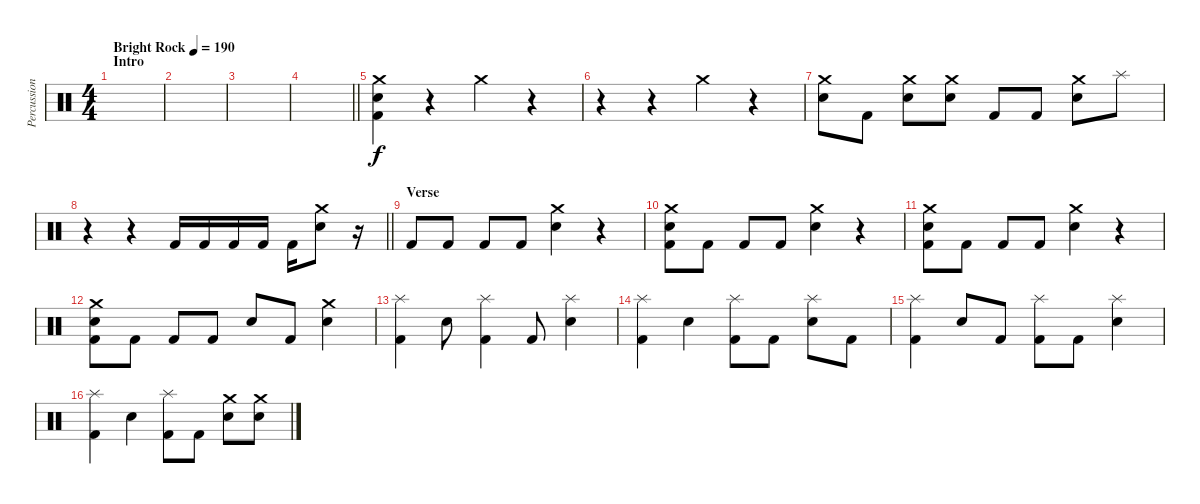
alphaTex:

\track ("Percussion" "Percussion") {instrument percussion}
\staff {score}
\articulation defaults
\ts (4 4)
\section ("" "Intro")
\tempo (190 "Bright Rock")
\clef neutral
\ks c
|
|
|
\barLineRight lightlight
|
("Crash medium (hit)" "Electric Snare (hit)" "Kick (hit) 2").4 r.4 "Crash medium (hit)".4 r.4 |
r.4 r.4 "Crash medium (hit)".4 r.4 |
("Crash medium (hit)" "Electric Snare (hit)").8 "Kick (hit) 2".8 ("Crash medium (hit)" "Electric Snare (hit)").8 ("Crash medium (hit)" "Electric Snare (hit)").8 "Kick (hit) 2".8 "Kick (hit) 2".8 ("Crash medium (hit)" "Electric Snare (hit)").8 "Splash (hit)".8 |
\barLineRight lightlight
r.4 r.4 "Kick (hit) 2".16 "Kick (hit) 2".16 "Kick (hit) 2".16 "Kick (hit) 2".16 "Kick (hit) 2".16 ("Crash medium (hit)" "Electric Snare (hit)").8 r.16 |
\section ("" "Verse")
"Kick (hit) 2".8 "Kick (hit) 2".8 "Kick (hit) 2".8 "Kick (hit) 2".8 ("Crash medium (hit)" "Electric Snare (hit)").4 r.4 |
("Crash medium (hit)" "Electric Snare (hit)" "Kick (hit) 2").8 "Kick (hit) 2".8 "Kick (hit) 2".8 "Kick (hit) 2".8 ("Crash medium (hit)" "Electric Snare (hit)").4 r.4 |
("Crash medium (hit)" "Electric Snare (hit)" "Kick (hit) 2").8 "Kick (hit) 2".8 "Kick (hit) 2".8 "Kick (hit) 2".8 ("Crash medium (hit)" "Electric Snare (hit)").4 r.4 |
("Crash medium (hit)" "Electric Snare (hit)" "Kick (hit) 2").8 "Kick (hit) 2".8 "Kick (hit) 2".8 "Kick (hit) 2".8 "Electric Snare (hit)".8 "Kick (hit) 2".8 ("Crash medium (hit)" "Electric Snare (hit)").4 |
("Splash (hit)" "Kick (hit) 2").4 "Electric Snare (hit)".8 ("Splash (hit)" "Kick (hit) 2").4 "Kick (hit) 2".8 ("Splash (hit)" "Electric Snare (hit)").4 |
("Splash (hit)" "Kick (hit) 2").4 "Electric Snare (hit)".4 ("Splash (hit)" "Kick (hit) 2").8 "Kick (hit) 2".8 ("Splash (hit)" "Electric Snare (hit)").8 "Kick (hit) 2".8 |
("Splash (hit)" "Kick (hit) 2").4 "Electric Snare (hit)".8 "Kick (hit) 2".8 ("Splash (hit)" "Kick (hit) 2").8 "Kick (hit) 2".8 ("Splash (hit)" "Electric Snare (hit)").4 |
("Splash (hit)" "Kick (hit) 2").4 "Electric Snare (hit)".4 ("Splash (hit)" "Kick (hit) 2").8 "Kick (hit) 2".8 ("Crash medium (hit)" "Electric Snare (hit)").8 ("Crash medium (hit)" "Electric Snare (hit)").8
